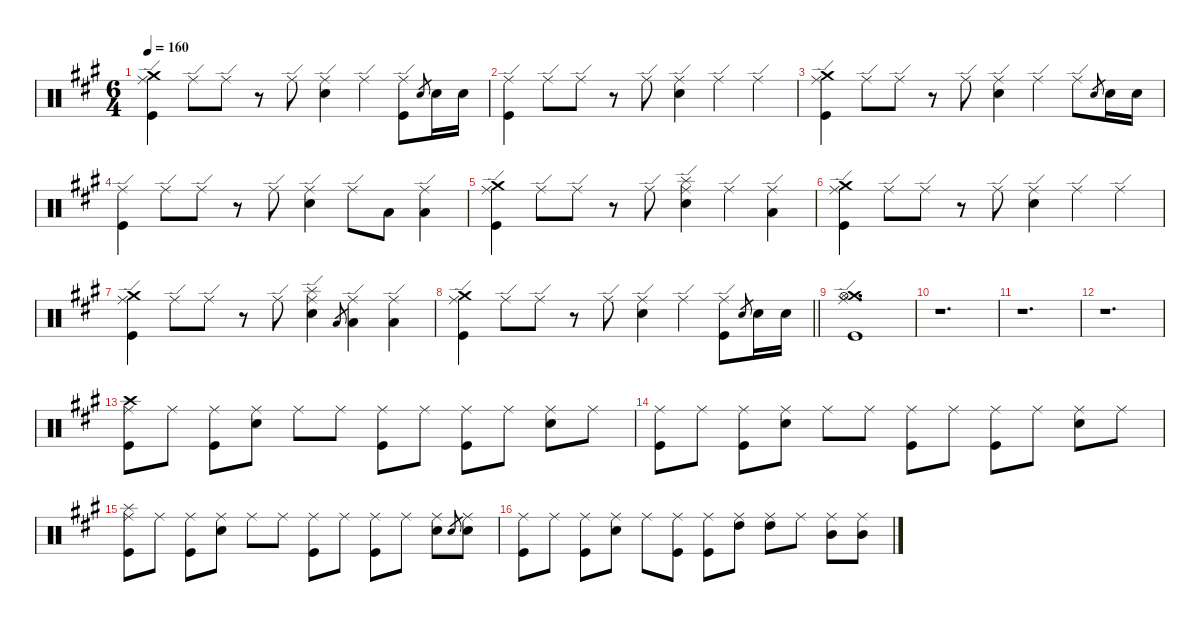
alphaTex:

\defaultSystemsLayout 4
\hideDynamics
\bracketExtendMode nobrackets
\singleTrackTrackNamePolicy hidden
\multiTrackTrackNamePolicy hidden
\firstSystemTrackNameMode fullname
\firstSystemTrackNameOrientation horizontal
\otherSystemsTrackNameOrientation horizontal
\track ("Drums" "drm.") {instrument percussion}
\staff {score}
\articulation defaults
\ts (6 4)
\tempo 160
\clef neutral
\ks f#minor
("Crash medium (hit)"{acc forcenatural} "Ride (edge)"{acc forcenatural} "Kick (hit)"{acc forcenatural}).4{dy f beam Down} "Ride (edge)"{acc forcenatural}.8{dy mf beam Down} "Ride (edge)"{acc forcenatural}.8{dy f beam Down} r.8{beam Down} "Ride (edge)"{acc forcenatural}.8{dy mf beam Down} ("Ride (edge)"{acc forcenatural} "Snare (hit) 2"{acc forcenatural}).4{dy f beam Down} "Ride (edge)"{acc forcenatural}.4{beam Down} ("Ride (edge)"{acc forcenatural} "Kick (hit)"{acc forcenatural}).8{beam Down} "Electric Snare (hit)"{acc forcenatural}.8{gr dy ppp beam Up} "Snare (hit) 2"{acc forcenatural}.16{dy p beam Down} "Snare (hit) 2"{acc forcenatural}.16{beam Down} |
("Ride (edge)"{acc forcenatural} "Kick (hit)"{acc forcenatural}).4{dy f beam Down} "Ride (edge)"{acc forcenatural}.8{dy mf beam Down} "Ride (edge)"{acc forcenatural}.8{dy f beam Down} r.8{beam Down} "Ride (edge)"{acc forcenatural}.8{dy mf beam Down} ("Ride (edge)"{acc forcenatural} "Snare (hit) 2"{acc forcenatural}).4{dy f beam Down} "Ride (edge)"{acc forcenatural}.4{beam Down} "Ride (edge)"{acc forcenatural}.4{beam Down} |
("Crash medium (hit)"{acc forcenatural} "Ride (edge)"{acc forcenatural} "Kick (hit)"{acc forcenatural}).4{beam Down} "Ride (edge)"{acc forcenatural}.8{dy mf beam Down} "Ride (edge)"{acc forcenatural}.8{dy f beam Down} r.8{beam Down} "Ride (edge)"{acc forcenatural}.8{dy mf beam Down} ("Ride (edge)"{acc forcenatural} "Snare (hit) 2"{acc forcenatural}).4{dy f beam Down} "Ride (edge)"{acc forcenatural}.4{beam Down} "Ride (edge)"{acc forcenatural}.8{beam Down} "Electric Snare (hit)"{acc forcenatural}.8{gr dy ppp beam Up} "Snare (hit) 2"{acc forcenatural}.16{dy p beam Down} "Snare (hit) 2"{acc forcenatural}.16{beam Down} |
("Ride (edge)"{acc forcenatural} "Kick (hit)"{acc forcenatural}).4{dy f beam Down} "Ride (edge)"{acc forcenatural}.8{dy mf beam Down} "Ride (edge)"{acc forcenatural}.8{dy f beam Down} r.8{beam Down} "Ride (edge)"{acc forcenatural}.8{dy mf beam Down} ("Ride (edge)"{acc forcenatural} "Snare (hit) 2"{acc forcenatural}).4{dy f beam Down} "Ride (edge)"{acc forcenatural}.8{beam Down} "Low Tom (hit)"{acc forcenatural}.8{dy mf beam Up} ("Ride (edge)"{acc forcenatural} "Low Tom (hit)"{acc forcenatural}).4{dy f beam Down} |
("Crash medium (hit)"{acc forcenatural} "Ride (edge)"{acc forcenatural} "Kick (hit)"{acc forcenatural}).4{beam Down} "Ride (edge)"{acc forcenatural}.8{dy mf beam Down} "Ride (edge)"{acc forcenatural}.8{dy f beam Down} r.8{beam Down} "Ride (edge)"{acc forcenatural}.8{dy mf beam Down} ("Splash (hit)"{acc forcenatural} "Ride (edge)"{acc forcenatural} "Snare (hit) 2"{acc forcenatural}).4{beam Down} "Ride (edge)"{acc forcenatural}.4{dy f beam Down} ("Ride (edge)"{acc forcenatural} "Low Tom (hit)"{acc forcenatural}).4{beam Down} |
("Crash medium (hit)"{acc forcenatural} "Ride (edge)"{acc forcenatural} "Kick (hit)"{acc forcenatural}).4{beam Down} "Ride (edge)"{acc forcenatural}.8{dy mf beam Down} "Ride (edge)"{acc forcenatural}.8{dy f beam Down} r.8{beam Down} "Ride (edge)"{acc forcenatural}.8{dy mf beam Down} ("Ride (edge)"{acc forcenatural} "Snare (hit) 2"{acc forcenatural}).4{dy f beam Down} "Ride (edge)"{acc forcenatural}.4{beam Down} "Ride (edge)"{acc forcenatural}.4{beam Down} |
("Crash medium (hit)"{acc forcenatural} "Ride (edge)"{acc forcenatural} "Kick (hit)"{acc forcenatural}).4{beam Down} "Ride (edge)"{acc forcenatural}.8{dy mf beam Down} "Ride (edge)"{acc forcenatural}.8{dy f beam Down} r.8{beam Down} "Ride (edge)"{acc forcenatural}.8{dy mf beam Down} ("Splash (hit)"{acc forcenatural} "Ride (edge)"{acc forcenatural} "Snare (hit) 2"{acc forcenatural}).4{beam Down} "Low Tom (hit)"{acc forcenatural}.8{gr dy mp beam Up} ("Ride (edge)"{acc forcenatural} "Low Tom (hit)"{acc forcenatural}).4{dy f beam Down} ("Ride (edge)"{acc forcenatural} "Low Tom (hit)"{acc forcenatural}).4{beam Down} |
\barLineRight lightlight
("Crash medium (hit)"{acc forcenatural} "Ride (edge)"{acc forcenatural} "Kick (hit)"{acc forcenatural}).4{beam Down} "Ride (edge)"{acc forcenatural}.8{dy mf beam Down} "Ride (edge)"{acc forcenatural}.8{dy f beam Down} r.8{beam Down} "Ride (edge)"{acc forcenatural}.8{dy mf beam Down} ("Ride (edge)"{acc forcenatural} "Snare (hit) 2"{acc forcenatural}).4{dy f beam Down} "Ride (edge)"{acc forcenatural}.4{beam Down} ("Ride (edge)"{acc forcenatural} "Kick (hit)"{acc forcenatural}).8{beam Down} "Electric Snare (hit)"{acc forcenatural}.8{gr dy ppp beam Up} "Snare (hit) 2"{acc forcenatural}.16{dy p beam Down} "Snare (hit) 2"{acc forcenatural}.16{beam Down} |
("Crash medium (hit)"{acc forcenatural} "Hi-Hat (open)"{acc forcenatural} "Ride (edge)"{acc forcenatural} "Kick (hit)"{acc forcenatural}).1{d dy mf beam Down} |
r.1{d beam Down} |
r.1{d beam Down} |
r.1{d beam Down} |
("Crash high (hit)"{acc forcenatural} "Ride (middle)"{acc forcenatural} "Kick (hit)"{acc forcenatural}).8{dy f beam Down} "Ride (middle)"{acc forcenatural}.8{beam Down} ("Ride (middle)"{acc forcenatural} "Kick (hit)"{acc forcenatural}).8{beam Down} ("Ride (middle)"{acc forcenatural} "Snare (hit) 2"{acc forcenatural}).8{beam Down} "Ride (middle)"{acc forcenatural}.8{beam Down} "Ride (middle)"{acc forcenatural}.8{beam Down} ("Ride (middle)"{acc forcenatural} "Kick (hit)"{acc forcenatural}).8{beam Down} "Ride (middle)"{acc forcenatural}.8{beam Down} ("Ride (middle)"{acc forcenatural} "Kick (hit)"{acc forcenatural}).8{beam Down} "Ride (middle)"{acc forcenatural}.8{beam Down} ("Ride (middle)"{acc forcenatural} "Snare (hit) 2"{acc forcenatural}).8{beam Down} "Ride (middle)"{acc forcenatural}.8{beam Down} |
("Ride (middle)"{acc forcenatural} "Kick (hit)"{acc forcenatural}).8{beam Down} "Ride (middle)"{acc forcenatural}.8{beam Down} ("Ride (middle)"{acc forcenatural} "Kick (hit)"{acc forcenatural}).8{beam Down} ("Ride (middle)"{acc forcenatural} "Snare (hit) 2"{acc forcenatural}).8{beam Down} "Ride (middle)"{acc forcenatural}.8{beam Down} "Ride (middle)"{acc forcenatural}.8{beam Down} ("Ride (middle)"{acc forcenatural} "Kick (hit)"{acc forcenatural}).8{beam Down} "Ride (middle)"{acc forcenatural}.8{beam Down} ("Ride (middle)"{acc forcenatural} "Kick (hit)"{acc forcenatural}).8{beam Down} "Ride (middle)"{acc forcenatural}.8{beam Down} ("Ride (middle)"{acc forcenatural} "Snare (hit) 2"{acc forcenatural}).8{beam Down} "Ride (middle)"{acc forcenatural}.8{beam Down} |
("Splash (hit)"{acc forcenatural} "Ride (middle)"{acc forcenatural} "Kick (hit)"{acc forcenatural}).8{beam Down} "Ride (middle)"{acc forcenatural}.8{beam Down} ("Ride (middle)"{acc forcenatural} "Kick (hit)"{acc forcenatural}).8{beam Down} ("Ride (middle)"{acc forcenatural} "Snare (hit) 2"{acc forcenatural}).8{beam Down} "Ride (middle)"{acc forcenatural}.8{beam Down} "Ride (middle)"{acc forcenatural}.8{beam Down} ("Ride (middle)"{acc forcenatural} "Kick (hit)"{acc forcenatural}).8{beam Down} "Ride (middle)"{acc forcenatural}.8{beam Down} ("Ride (middle)"{acc forcenatural} "Kick (hit)"{acc forcenatural}).8{beam Down} "Ride (middle)"{acc forcenatural}.8{beam Down} ("Ride (middle)"{acc forcenatural} "Snare (hit) 2"{acc forcenatural}).8{beam Down} "Electric Snare (hit)"{acc forcenatural}.8{gr dy pp beam Up} ("Ride (middle)"{acc forcenatural} "Snare (hit) 2"{acc forcenatural}).8{dy f beam Down} |
("Ride (middle)"{acc forcenatural} "Kick (hit)"{acc forcenatural}).8{beam Down} "Ride (middle)"{acc forcenatural}.8{beam Down} ("Ride (middle)"{acc forcenatural} "Kick (hit)"{acc forcenatural}).8{beam Down} ("Ride (middle)"{acc forcenatural} "Snare (hit) 2"{acc forcenatural}).8{beam Down} "Ride (middle)"{acc forcenatural}.8{beam Down} ("Ride (middle)"{acc forcenatural} "Kick (hit)"{acc forcenatural}).8{beam Down} ("Ride (middle)"{acc forcenatural} "Kick (hit)"{acc forcenatural}).8{beam Down} ("Ride (middle)"{acc forcenatural} "High Tom (hit)"{acc forcenatural}).8{beam Down} ("Ride (middle)"{acc forcenatural} "High Tom (hit)"{acc forcenatural}).8{beam Down} "Ride (middle)"{acc forcenatural}.8{beam Down} ("Ride (middle)"{acc forcenatural} "Mid Tom (hit)"{acc forcenatural}).8{beam Down} ("Ride (middle)"{acc forcenatural} "Mid Tom (hit)"{acc forcenatural}).8{beam Down}
